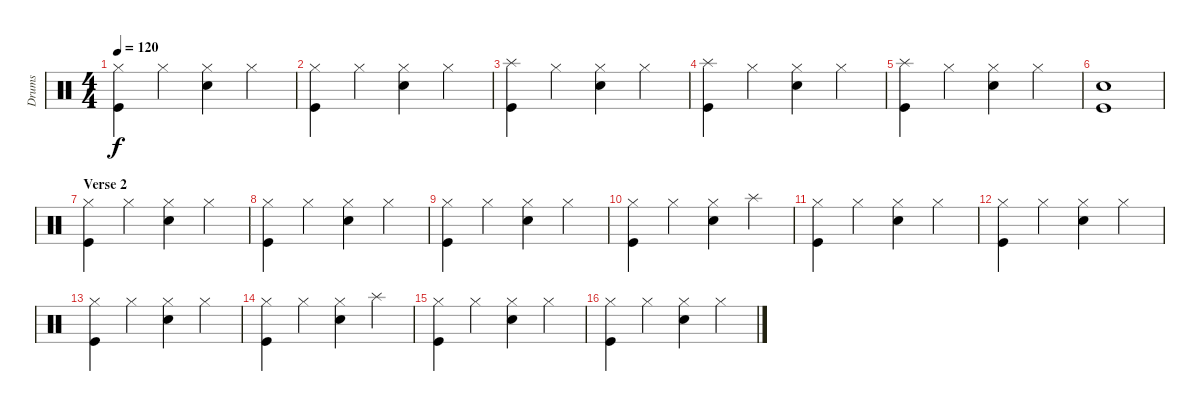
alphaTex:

\track ("Drums" "Drums") {instrument percussion}
\staff {score}
\articulation defaults
\ts (4 4)
\tempo 120
\clef neutral
\ks c
("Hi-Hat (closed)" "Kick (hit)").4{dy f} "Hi-Hat (closed)".4 ("Hi-Hat (closed)" "Snare (hit) 2").4 "Hi-Hat (closed)".4 |
("Hi-Hat (closed)" "Kick (hit)").4 "Hi-Hat (closed)".4 ("Hi-Hat (closed)" "Snare (hit) 2").4 "Hi-Hat (closed)".4 |
("Splash (hit)" "Kick (hit)").4 "Hi-Hat (closed)".4 ("Hi-Hat (closed)" "Snare (hit) 2").4 "Hi-Hat (closed)".4 |
("Splash (hit)" "Kick (hit)").4 "Hi-Hat (closed)".4 ("Hi-Hat (closed)" "Snare (hit) 2").4 "Hi-Hat (closed)".4 |
("Splash (hit)" "Kick (hit)").4 "Hi-Hat (closed)".4 ("Hi-Hat (closed)" "Snare (hit) 2").4 "Hi-Hat (closed)".4 |
("Snare (hit) 2" "Kick (hit)").1 |
\section ("" "Verse 2")
("Hi-Hat (closed)" "Kick (hit)").4 "Hi-Hat (closed)".4 ("Hi-Hat (closed)" "Snare (hit) 2").4 "Hi-Hat (closed)".4 |
("Hi-Hat (closed)" "Kick (hit)").4 "Hi-Hat (closed)".4 ("Hi-Hat (closed)" "Snare (hit) 2").4 "Hi-Hat (closed)".4 |
("Hi-Hat (closed)" "Kick (hit)").4 "Hi-Hat (closed)".4 ("Hi-Hat (closed)" "Snare (hit) 2").4 "Hi-Hat (closed)".4 |
("Hi-Hat (closed)" "Kick (hit)").4 "Hi-Hat (closed)".4 ("Hi-Hat (closed)" "Snare (hit) 2").4 "Splash (hit)".4 |
("Hi-Hat (closed)" "Kick (hit)").4 "Hi-Hat (closed)".4 ("Hi-Hat (closed)" "Snare (hit) 2").4 "Hi-Hat (closed)".4 |
("Hi-Hat (closed)" "Kick (hit)").4 "Hi-Hat (closed)".4 ("Hi-Hat (closed)" "Snare (hit) 2").4 "Hi-Hat (closed)".4 |
("Hi-Hat (closed)" "Kick (hit)").4 "Hi-Hat (closed)".4 ("Hi-Hat (closed)" "Snare (hit) 2").4 "Hi-Hat (closed)".4 |
("Hi-Hat (closed)" "Kick (hit)").4 "Hi-Hat (closed)".4 ("Hi-Hat (closed)" "Snare (hit) 2").4 "Splash (hit)".4 |
("Hi-Hat (closed)" "Kick (hit)").4 "Hi-Hat (closed)".4 ("Hi-Hat (closed)" "Snare (hit) 2").4 "Hi-Hat (closed)".4 |
("Hi-Hat (closed)" "Kick (hit)").4 "Hi-Hat (closed)".4 ("Hi-Hat (closed)" "Snare (hit) 2").4 "Hi-Hat (closed)".4
